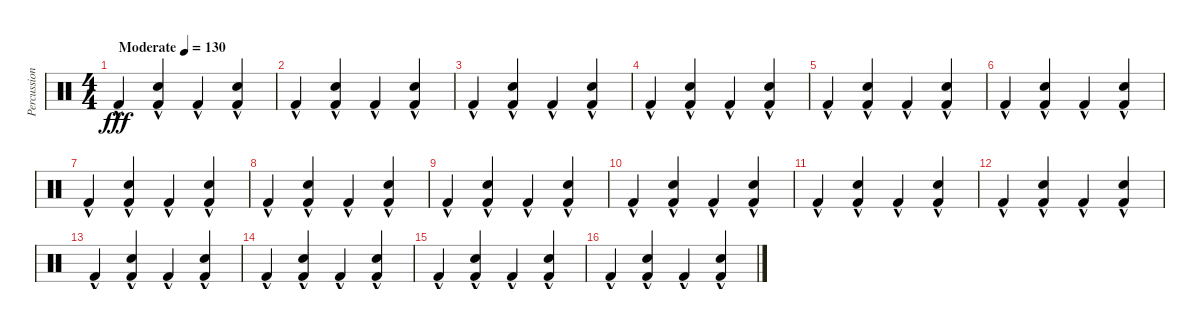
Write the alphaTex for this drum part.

\track ("Percussion" "Percussion") {instrument percussion}
\staff {score}
\articulation defaults
\ts (4 4)
\tempo (130 "Moderate")
\clef neutral
\ks c "Kick (hit) 2"{hac}.4{dy fff}
("Kick (hit) 2"{hac} "Electric Snare (hit)"{hac}).4 "Kick (hit) 2"{hac}.4 ("Kick (hit) 2"{hac} "Electric Snare (hit)"{hac}).4 |
"Kick (hit) 2"{hac}.4 ("Kick (hit) 2"{hac} "Electric Snare (hit)"{hac}).4 "Kick (hit) 2"{hac}.4 ("Kick (hit) 2"{hac} "Electric Snare (hit)"{hac}).4 |
"Kick (hit) 2"{hac}.4 ("Kick (hit) 2"{hac} "Electric Snare (hit)"{hac}).4 "Kick (hit) 2"{hac}.4 ("Kick (hit) 2"{hac} "Electric Snare (hit)"{hac}).4 |
"Kick (hit) 2"{hac}.4 ("Kick (hit) 2"{hac} "Electric Snare (hit)"{hac}).4 "Kick (hit) 2"{hac}.4 ("Kick (hit) 2"{hac} "Electric Snare (hit)"{hac}).4 |
"Kick (hit) 2"{hac}.4 ("Kick (hit) 2"{hac} "Electric Snare (hit)"{hac}).4 "Kick (hit) 2"{hac}.4 ("Kick (hit) 2"{hac} "Electric Snare (hit)"{hac}).4 |
"Kick (hit) 2"{hac}.4 ("Kick (hit) 2"{hac} "Electric Snare (hit)"{hac}).4 "Kick (hit) 2"{hac}.4 ("Kick (hit) 2"{hac} "Electric Snare (hit)"{hac}).4 |
"Kick (hit) 2"{hac}.4 ("Kick (hit) 2"{hac} "Electric Snare (hit)"{hac}).4 "Kick (hit) 2"{hac}.4 ("Kick (hit) 2"{hac} "Electric Snare (hit)"{hac}).4 |
"Kick (hit) 2"{hac}.4 ("Kick (hit) 2"{hac} "Electric Snare (hit)"{hac}).4 "Kick (hit) 2"{hac}.4 ("Kick (hit) 2"{hac} "Electric Snare (hit)"{hac}).4 |
"Kick (hit) 2"{hac}.4 ("Kick (hit) 2"{hac} "Electric Snare (hit)"{hac}).4 "Kick (hit) 2"{hac}.4 ("Kick (hit) 2"{hac} "Electric Snare (hit)"{hac}).4 |
"Kick (hit) 2"{hac}.4 ("Kick (hit) 2"{hac} "Electric Snare (hit)"{hac}).4 "Kick (hit) 2"{hac}.4 ("Kick (hit) 2"{hac} "Electric Snare (hit)"{hac}).4 |
"Kick (hit) 2"{hac}.4 ("Kick (hit) 2"{hac} "Electric Snare (hit)"{hac}).4 "Kick (hit) 2"{hac}.4 ("Kick (hit) 2"{hac} "Electric Snare (hit)"{hac}).4 |
"Kick (hit) 2"{hac}.4 ("Kick (hit) 2"{hac} "Electric Snare (hit)"{hac}).4 "Kick (hit) 2"{hac}.4 ("Kick (hit) 2"{hac} "Electric Snare (hit)"{hac}).4 |
"Kick (hit) 2"{hac}.4 ("Kick (hit) 2"{hac} "Electric Snare (hit)"{hac}).4 "Kick (hit) 2"{hac}.4 ("Kick (hit) 2"{hac} "Electric Snare (hit)"{hac}).4 |
"Kick (hit) 2"{hac}.4 ("Kick (hit) 2"{hac} "Electric Snare (hit)"{hac}).4 "Kick (hit) 2"{hac}.4 ("Kick (hit) 2"{hac} "Electric Snare (hit)"{hac}).4 |
"Kick (hit) 2"{hac}.4 ("Kick (hit) 2"{hac} "Electric Snare (hit)"{hac}).4 "Kick (hit) 2"{hac}.4 ("Kick (hit) 2"{hac} "Electric Snare (hit)"{hac}).4 |
"Kick (hit) 2"{hac}.4 ("Kick (hit) 2"{hac} "Electric Snare (hit)"{hac}).4 "Kick (hit) 2"{hac}.4 ("Kick (hit) 2"{hac} "Electric Snare (hit)"{hac}).4
